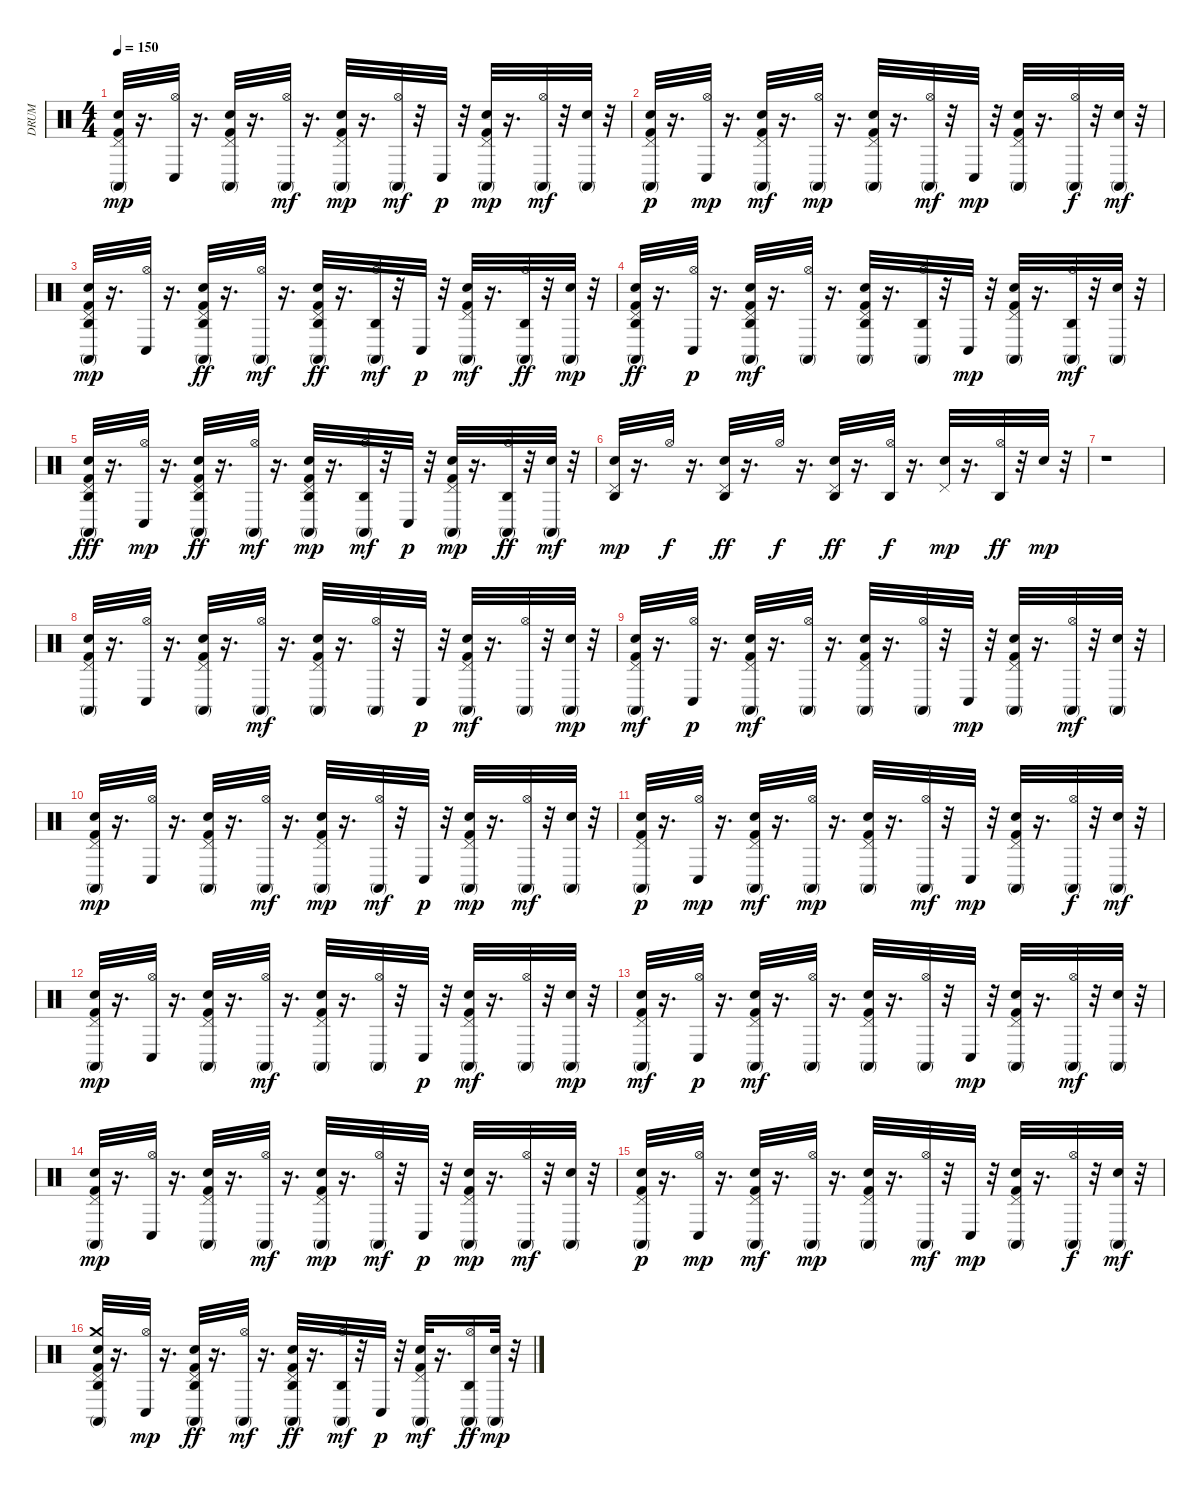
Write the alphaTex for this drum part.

\track ("DRUM" "DRUM") {instrument percussion}
\staff {score}
\articulation defaults
\ts (4 4)
\tempo 150
\clef neutral
\ks c
("Kick (hit) 2" "Hand Clap (hit)" "Pedal Hi-Hat (hit)" "Conga high (mute)").32{dy mp} r.16{d} ("Hi-Hat (open)" "Conga low (hit)").32 r.16{d} ("Kick (hit) 2" "Hand Clap (hit)" "Pedal Hi-Hat (hit)" "Conga high (mute)").32 r.16{d} ("Hi-Hat (open)" "Conga high (mute)").32{dy mf} r.16{d} ("Kick (hit) 2" "Hand Clap (hit)" "Pedal Hi-Hat (hit)" "Conga high (mute)").32{dy mp} r.16{d} ("Hi-Hat (open)" "Conga high (mute)").32{dy mf} r.32 "Conga low (hit)".32{dy p} r.32 ("Kick (hit) 2" "Hand Clap (hit)" "Pedal Hi-Hat (hit)" "Conga high (mute)").32{dy mp} r.16{d} ("Hi-Hat (open)" "Conga high (mute)").32{dy mf} r.32 ("Hand Clap (hit)" "Conga high (mute)").32 r.32 |
("Kick (hit) 2" "Hand Clap (hit)" "Pedal Hi-Hat (hit)" "Conga high (mute)").32{dy p} r.16{d} ("Hi-Hat (open)" "Conga low (hit)").32{dy mp} r.16{d} ("Kick (hit) 2" "Hand Clap (hit)" "Pedal Hi-Hat (hit)" "Conga high (mute)").32{dy mf} r.16{d} ("Hi-Hat (open)" "Conga high (mute)").32{dy mp} r.16{d} ("Kick (hit) 2" "Hand Clap (hit)" "Pedal Hi-Hat (hit)" "Conga high (mute)").32 r.16{d} ("Hi-Hat (open)" "Conga high (mute)").32{dy mf} r.32 "Conga low (hit)".32{dy mp} r.32 ("Kick (hit) 2" "Hand Clap (hit)" "Pedal Hi-Hat (hit)" "Conga high (mute)").32 r.16{d} ("Hi-Hat (open)" "Conga high (mute)").32{dy f} r.32 ("Hand Clap (hit)" "Conga high (mute)").32{dy mf} r.32 |
("Kick (hit) 2" "Hand Clap (hit)" "Pedal Hi-Hat (hit)" "Conga high (mute)" "Agogo high (hit)").32{dy mp} r.16{d} ("Hi-Hat (open)" "Conga low (hit)").32 r.16{d} ("Kick (hit) 2" "Hand Clap (hit)" "Pedal Hi-Hat (hit)" "Conga high (mute)" "Agogo high (hit)").32{dy ff} r.16{d} ("Hi-Hat (open)" "Conga high (mute)").32{dy mf} r.16{d} ("Kick (hit) 2" "Hand Clap (hit)" "Pedal Hi-Hat (hit)" "Conga high (mute)" "Agogo high (hit)").32{dy ff} r.16{d} ("Hi-Hat (open)" "Conga high (mute)" "Agogo high (hit)").32{dy mf} r.32 "Conga low (hit)".32{dy p} r.32 ("Kick (hit) 2" "Hand Clap (hit)" "Pedal Hi-Hat (hit)" "Conga high (mute)").32{dy mf} r.16{d} ("Hi-Hat (open)" "Conga high (mute)" "Agogo high (hit)").32{dy ff} r.32 ("Hand Clap (hit)" "Conga high (mute)").32{dy mp} r.32 |
("Kick (hit) 2" "Hand Clap (hit)" "Pedal Hi-Hat (hit)" "Conga high (mute)" "Agogo high (hit)").32{dy ff} r.16{d} ("Hi-Hat (open)" "Conga low (hit)").32{dy p} r.16{d} ("Kick (hit) 2" "Hand Clap (hit)" "Pedal Hi-Hat (hit)" "Conga high (mute)" "Agogo high (hit)").32{dy mf} r.16{d} ("Hi-Hat (open)" "Conga high (mute)").32 r.16{d} ("Kick (hit) 2" "Hand Clap (hit)" "Pedal Hi-Hat (hit)" "Conga high (mute)" "Agogo high (hit)").32 r.16{d} ("Hi-Hat (open)" "Conga high (mute)" "Agogo high (hit)").32 r.32 "Conga low (hit)".32{dy mp} r.32 ("Kick (hit) 2" "Hand Clap (hit)" "Pedal Hi-Hat (hit)" "Conga high (mute)").32 r.16{d} ("Hi-Hat (open)" "Conga high (mute)" "Agogo high (hit)").32{dy mf} r.32 ("Hand Clap (hit)" "Conga high (mute)").32 r.32 |
("Kick (hit) 2" "Hand Clap (hit)" "Pedal Hi-Hat (hit)" "Conga high (mute)" "Agogo high (hit)").32{dy fff} r.16{d} ("Hi-Hat (open)" "Conga low (hit)").32{dy mp} r.16{d} ("Kick (hit) 2" "Hand Clap (hit)" "Pedal Hi-Hat (hit)" "Conga high (mute)" "Agogo high (hit)").32{dy ff} r.16{d} ("Hi-Hat (open)" "Conga high (mute)").32{dy mf} r.16{d} ("Kick (hit) 2" "Hand Clap (hit)" "Pedal Hi-Hat (hit)" "Conga high (mute)" "Agogo high (hit)").32{dy mp} r.16{d} ("Hi-Hat (open)" "Conga high (mute)" "Agogo high (hit)").32{dy mf} r.32 "Conga low (hit)".32{dy p} r.32 ("Kick (hit) 2" "Hand Clap (hit)" "Pedal Hi-Hat (hit)" "Conga high (mute)").32{dy mp} r.16{d} ("Hi-Hat (open)" "Conga high (mute)" "Agogo high (hit)").32{dy ff} r.32 ("Hand Clap (hit)" "Conga high (mute)").32{dy mf} r.32 |
("Hand Clap (hit)" "Pedal Hi-Hat (hit)" "Agogo high (hit)").32{dy mp} r.16{d} "Hi-Hat (open)".32{dy f} r.16{d} ("Hand Clap (hit)" "Pedal Hi-Hat (hit)" "Agogo high (hit)").32{dy ff} r.16{d} "Hi-Hat (open)".32{dy f} r.16{d} ("Hand Clap (hit)" "Pedal Hi-Hat (hit)" "Agogo high (hit)").32{dy ff} r.16{d} ("Hi-Hat (open)" "Agogo high (hit)").32{dy f} r.16{d} ("Hand Clap (hit)" "Pedal Hi-Hat (hit)").32{dy mp} r.16{d} ("Hi-Hat (open)" "Agogo high (hit)").32{dy ff} r.32 "Hand Clap (hit)".32{dy mp} r.32 |
r.1 |
("Kick (hit) 2" "Hand Clap (hit)" "Pedal Hi-Hat (hit)" "Conga high (mute)").32 r.16{d} ("Hi-Hat (open)" "Conga low (hit)").32 r.16{d} ("Kick (hit) 2" "Hand Clap (hit)" "Pedal Hi-Hat (hit)" "Conga high (mute)").32 r.16{d} ("Hi-Hat (open)" "Conga high (mute)").32{dy mf} r.16{d} ("Kick (hit) 2" "Hand Clap (hit)" "Pedal Hi-Hat (hit)" "Conga high (mute)").32 r.16{d} ("Hi-Hat (open)" "Conga high (mute)").32 r.32 "Conga low (hit)".32{dy p} r.32 ("Kick (hit) 2" "Hand Clap (hit)" "Pedal Hi-Hat (hit)" "Conga high (mute)").32{dy mf} r.16{d} ("Hi-Hat (open)" "Conga high (mute)").32 r.32 ("Hand Clap (hit)" "Conga high (mute)").32{dy mp} r.32 |
("Kick (hit) 2" "Hand Clap (hit)" "Pedal Hi-Hat (hit)" "Conga high (mute)").32{dy mf} r.16{d} ("Hi-Hat (open)" "Conga low (hit)").32{dy p} r.16{d} ("Kick (hit) 2" "Hand Clap (hit)" "Pedal Hi-Hat (hit)" "Conga high (mute)").32{dy mf} r.16{d} ("Hi-Hat (open)" "Conga high (mute)").32 r.16{d} ("Kick (hit) 2" "Hand Clap (hit)" "Pedal Hi-Hat (hit)" "Conga high (mute)").32 r.16{d} ("Hi-Hat (open)" "Conga high (mute)").32 r.32 "Conga low (hit)".32{dy mp} r.32 ("Kick (hit) 2" "Hand Clap (hit)" "Pedal Hi-Hat (hit)" "Conga high (mute)").32 r.16{d} ("Hi-Hat (open)" "Conga high (mute)").32{dy mf} r.32 ("Hand Clap (hit)" "Conga high (mute)").32 r.32 |
("Kick (hit) 2" "Hand Clap (hit)" "Pedal Hi-Hat (hit)" "Conga high (mute)").32{dy mp} r.16{d} ("Hi-Hat (open)" "Conga low (hit)").32 r.16{d} ("Kick (hit) 2" "Hand Clap (hit)" "Pedal Hi-Hat (hit)" "Conga high (mute)").32 r.16{d} ("Hi-Hat (open)" "Conga high (mute)").32{dy mf} r.16{d} ("Kick (hit) 2" "Hand Clap (hit)" "Pedal Hi-Hat (hit)" "Conga high (mute)").32{dy mp} r.16{d} ("Hi-Hat (open)" "Conga high (mute)").32{dy mf} r.32 "Conga low (hit)".32{dy p} r.32 ("Kick (hit) 2" "Hand Clap (hit)" "Pedal Hi-Hat (hit)" "Conga high (mute)").32{dy mp} r.16{d} ("Hi-Hat (open)" "Conga high (mute)").32{dy mf} r.32 ("Hand Clap (hit)" "Conga high (mute)").32 r.32 |
("Kick (hit) 2" "Hand Clap (hit)" "Pedal Hi-Hat (hit)" "Conga high (mute)").32{dy p} r.16{d} ("Hi-Hat (open)" "Conga low (hit)").32{dy mp} r.16{d} ("Kick (hit) 2" "Hand Clap (hit)" "Pedal Hi-Hat (hit)" "Conga high (mute)").32{dy mf} r.16{d} ("Hi-Hat (open)" "Conga high (mute)").32{dy mp} r.16{d} ("Kick (hit) 2" "Hand Clap (hit)" "Pedal Hi-Hat (hit)" "Conga high (mute)").32 r.16{d} ("Hi-Hat (open)" "Conga high (mute)").32{dy mf} r.32 "Conga low (hit)".32{dy mp} r.32 ("Kick (hit) 2" "Hand Clap (hit)" "Pedal Hi-Hat (hit)" "Conga high (mute)").32 r.16{d} ("Hi-Hat (open)" "Conga high (mute)").32{dy f} r.32 ("Hand Clap (hit)" "Conga high (mute)").32{dy mf} r.32 |
("Kick (hit) 2" "Hand Clap (hit)" "Pedal Hi-Hat (hit)" "Conga high (mute)").32{dy mp} r.16{d} ("Hi-Hat (open)" "Conga low (hit)").32 r.16{d} ("Kick (hit) 2" "Hand Clap (hit)" "Pedal Hi-Hat (hit)" "Conga high (mute)").32 r.16{d} ("Hi-Hat (open)" "Conga high (mute)").32{dy mf} r.16{d} ("Kick (hit) 2" "Hand Clap (hit)" "Pedal Hi-Hat (hit)" "Conga high (mute)").32 r.16{d} ("Hi-Hat (open)" "Conga high (mute)").32 r.32 "Conga low (hit)".32{dy p} r.32 ("Kick (hit) 2" "Hand Clap (hit)" "Pedal Hi-Hat (hit)" "Conga high (mute)").32{dy mf} r.16{d} ("Hi-Hat (open)" "Conga high (mute)").32 r.32 ("Hand Clap (hit)" "Conga high (mute)").32{dy mp} r.32 |
("Kick (hit) 2" "Hand Clap (hit)" "Pedal Hi-Hat (hit)" "Conga high (mute)").32{dy mf} r.16{d} ("Hi-Hat (open)" "Conga low (hit)").32{dy p} r.16{d} ("Kick (hit) 2" "Hand Clap (hit)" "Pedal Hi-Hat (hit)" "Conga high (mute)").32{dy mf} r.16{d} ("Hi-Hat (open)" "Conga high (mute)").32 r.16{d} ("Kick (hit) 2" "Hand Clap (hit)" "Pedal Hi-Hat (hit)" "Conga high (mute)").32 r.16{d} ("Hi-Hat (open)" "Conga high (mute)").32 r.32 "Conga low (hit)".32{dy mp} r.32 ("Kick (hit) 2" "Hand Clap (hit)" "Pedal Hi-Hat (hit)" "Conga high (mute)").32 r.16{d} ("Hi-Hat (open)" "Conga high (mute)").32{dy mf} r.32 ("Hand Clap (hit)" "Conga high (mute)").32 r.32 |
("Kick (hit) 2" "Hand Clap (hit)" "Pedal Hi-Hat (hit)" "Conga high (mute)").32{dy mp} r.16{d} ("Hi-Hat (open)" "Conga low (hit)").32 r.16{d} ("Kick (hit) 2" "Hand Clap (hit)" "Pedal Hi-Hat (hit)" "Conga high (mute)").32 r.16{d} ("Hi-Hat (open)" "Conga high (mute)").32{dy mf} r.16{d} ("Kick (hit) 2" "Hand Clap (hit)" "Pedal Hi-Hat (hit)" "Conga high (mute)").32{dy mp} r.16{d} ("Hi-Hat (open)" "Conga high (mute)").32{dy mf} r.32 "Conga low (hit)".32{dy p} r.32 ("Kick (hit) 2" "Hand Clap (hit)" "Pedal Hi-Hat (hit)" "Conga high (mute)").32{dy mp} r.16{d} ("Hi-Hat (open)" "Conga high (mute)").32{dy mf} r.32 ("Hand Clap (hit)" "Conga high (mute)").32 r.32 |
("Kick (hit) 2" "Hand Clap (hit)" "Pedal Hi-Hat (hit)" "Conga high (mute)").32{dy p} r.16{d} ("Hi-Hat (open)" "Conga low (hit)").32{dy mp} r.16{d} ("Kick (hit) 2" "Hand Clap (hit)" "Pedal Hi-Hat (hit)" "Conga high (mute)").32{dy mf} r.16{d} ("Hi-Hat (open)" "Conga high (mute)").32{dy mp} r.16{d} ("Kick (hit) 2" "Hand Clap (hit)" "Pedal Hi-Hat (hit)" "Conga high (mute)").32 r.16{d} ("Hi-Hat (open)" "Conga high (mute)").32{dy mf} r.32 "Conga low (hit)".32{dy mp} r.32 ("Kick (hit) 2" "Hand Clap (hit)" "Pedal Hi-Hat (hit)" "Conga high (mute)").32 r.16{d} ("Hi-Hat (open)" "Conga high (mute)").32{dy f} r.32 ("Hand Clap (hit)" "Conga high (mute)").32{dy mf} r.32 |
("Kick (hit) 2" "Hand Clap (hit)" "Pedal Hi-Hat (hit)" "Crash medium (hit)" "Conga high (mute)" "Agogo high (hit)").32 r.16{d} ("Hi-Hat (open)" "Conga low (hit)").32{dy mp} r.16{d} ("Kick (hit) 2" "Hand Clap (hit)" "Pedal Hi-Hat (hit)" "Conga high (mute)" "Agogo high (hit)").32{dy ff} r.16{d} ("Hi-Hat (open)" "Conga high (mute)").32{dy mf} r.16{d} ("Kick (hit) 2" "Hand Clap (hit)" "Pedal Hi-Hat (hit)" "Conga high (mute)" "Agogo high (hit)").32{dy ff} r.16{d} ("Hi-Hat (open)" "Conga high (mute)" "Agogo high (hit)").32{dy mf} r.32 "Conga low (hit)".32{dy p} r.32 ("Kick (hit) 2" "Hand Clap (hit)" "Pedal Hi-Hat (hit)" "Conga high (mute)").32{dy mf} r.16{d} ("Hi-Hat (open)" "Conga high (mute)" "Agogo high (hit)").16{dy ff} ("Hand Clap (hit)" "Conga high (mute)").32{dy mp} r.32
